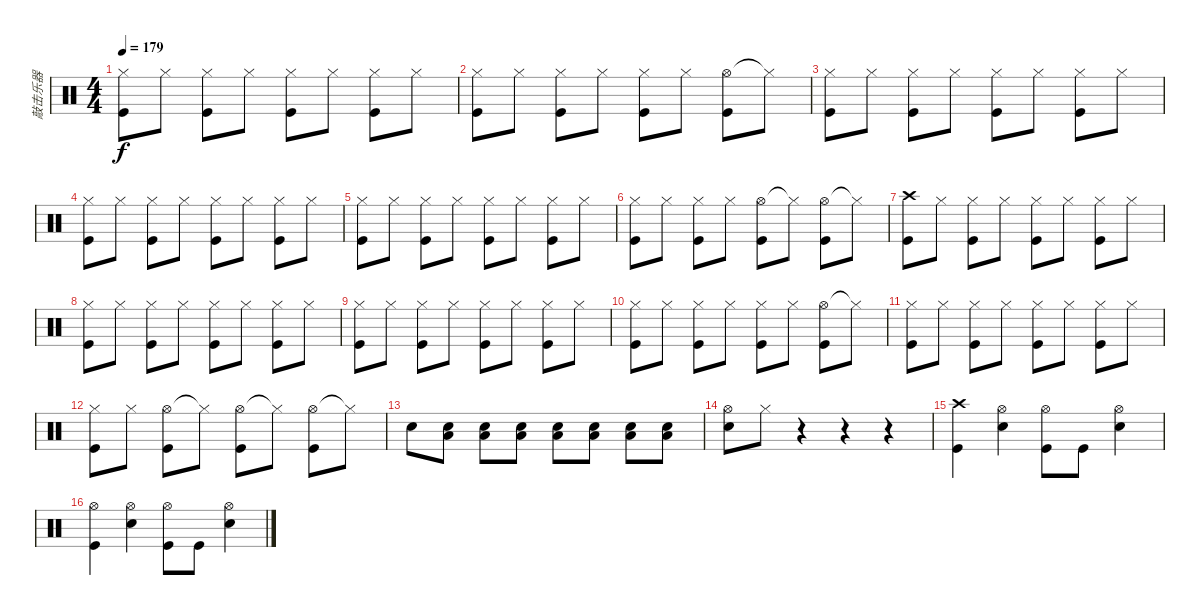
\track ("敲击乐器" "敲击乐器") {instrument percussion}
\staff {score}
\articulation defaults
\ts (4 4)
\tempo 179
\clef neutral
\ks c
("Hi-Hat (closed)" "Kick (hit)").8{dy f} "Hi-Hat (closed)".8 ("Hi-Hat (closed)" "Kick (hit)").8 "Hi-Hat (closed)".8 ("Hi-Hat (closed)" "Kick (hit)").8 "Hi-Hat (closed)".8 ("Hi-Hat (closed)" "Kick (hit)").8 "Hi-Hat (closed)".8 |
("Hi-Hat (closed)" "Kick (hit)").8 "Hi-Hat (closed)".8 ("Hi-Hat (closed)" "Kick (hit)").8 "Hi-Hat (closed)".8 ("Hi-Hat (closed)" "Kick (hit)").8 "Hi-Hat (closed)".8 ("Hi-Hat (open)" "Kick (hit)").8 "Hi-Hat (closed)"{t}.8 |
("Hi-Hat (closed)" "Kick (hit)").8 "Hi-Hat (closed)".8 ("Hi-Hat (closed)" "Kick (hit)").8 "Hi-Hat (closed)".8 ("Hi-Hat (closed)" "Kick (hit)").8 "Hi-Hat (closed)".8 ("Hi-Hat (closed)" "Kick (hit)").8 "Hi-Hat (closed)".8 |
("Hi-Hat (closed)" "Kick (hit)").8 "Hi-Hat (closed)".8 ("Hi-Hat (closed)" "Kick (hit)").8 "Hi-Hat (closed)".8 ("Hi-Hat (closed)" "Kick (hit)").8 "Hi-Hat (closed)".8 ("Hi-Hat (closed)" "Kick (hit)").8 "Hi-Hat (closed)".8 |
("Hi-Hat (closed)" "Kick (hit)").8 "Hi-Hat (closed)".8 ("Hi-Hat (closed)" "Kick (hit)").8 "Hi-Hat (closed)".8 ("Hi-Hat (closed)" "Kick (hit)").8 "Hi-Hat (closed)".8 ("Hi-Hat (closed)" "Kick (hit)").8 "Hi-Hat (closed)".8 |
("Hi-Hat (closed)" "Kick (hit)").8 "Hi-Hat (closed)".8 ("Hi-Hat (closed)" "Kick (hit)").8 "Hi-Hat (closed)".8 ("Hi-Hat (open)" "Kick (hit)").8 "Hi-Hat (closed)"{t}.8 ("Hi-Hat (open)" "Kick (hit)").8 "Hi-Hat (closed)"{t}.8 |
("Crash high (hit)" "Kick (hit)").8 "Hi-Hat (closed)".8 ("Hi-Hat (closed)" "Kick (hit)").8 "Hi-Hat (closed)".8 ("Hi-Hat (closed)" "Kick (hit)").8 "Hi-Hat (closed)".8 ("Hi-Hat (closed)" "Kick (hit)").8 "Hi-Hat (closed)".8 |
("Hi-Hat (closed)" "Kick (hit)").8 "Hi-Hat (closed)".8 ("Hi-Hat (closed)" "Kick (hit)").8 "Hi-Hat (closed)".8 ("Hi-Hat (closed)" "Kick (hit)").8 "Hi-Hat (closed)".8 ("Hi-Hat (closed)" "Kick (hit)").8 "Hi-Hat (closed)".8 |
("Hi-Hat (closed)" "Kick (hit)").8 "Hi-Hat (closed)".8 ("Hi-Hat (closed)" "Kick (hit)").8 "Hi-Hat (closed)".8 ("Hi-Hat (closed)" "Kick (hit)").8 "Hi-Hat (closed)".8 ("Hi-Hat (closed)" "Kick (hit)").8 "Hi-Hat (closed)".8 |
("Hi-Hat (closed)" "Kick (hit)").8 "Hi-Hat (closed)".8 ("Hi-Hat (closed)" "Kick (hit)").8 "Hi-Hat (closed)".8 ("Hi-Hat (closed)" "Kick (hit)").8 "Hi-Hat (closed)".8 ("Hi-Hat (open)" "Kick (hit)").8 "Hi-Hat (closed)"{t}.8 |
("Hi-Hat (closed)" "Kick (hit)").8 "Hi-Hat (closed)".8 ("Hi-Hat (closed)" "Kick (hit)").8 "Hi-Hat (closed)".8 ("Hi-Hat (closed)" "Kick (hit)").8 "Hi-Hat (closed)".8 ("Hi-Hat (closed)" "Kick (hit)").8 "Hi-Hat (closed)".8 |
("Hi-Hat (closed)" "Kick (hit)").8 "Hi-Hat (closed)".8 ("Hi-Hat (open)" "Kick (hit)").8 "Hi-Hat (closed)"{t}.8 ("Hi-Hat (open)" "Kick (hit)").8 "Hi-Hat (closed)"{t}.8 ("Hi-Hat (open)" "Kick (hit)").8 "Hi-Hat (closed)"{t}.8 |
"Electric Snare (hit)".8 ("Electric Snare (hit)" "Low Floor Tom (hit)").8 ("Electric Snare (hit)" "Low Floor Tom (hit)").8 ("Electric Snare (hit)" "Low Floor Tom (hit)").8 ("Electric Snare (hit)" "Low Floor Tom (hit)").8 ("Electric Snare (hit)" "Low Floor Tom (hit)").8 ("Electric Snare (hit)" "Low Floor Tom (hit)").8 ("Electric Snare (hit)" "Low Floor Tom (hit)").8 |
("Hi-Hat (open)" "Electric Snare (hit)").8 "Hi-Hat (closed)".8 r.4 r.4 r.4 |
("Crash high (hit)" "Kick (hit)").4 ("Hi-Hat (open)" "Electric Snare (hit)").4 ("Hi-Hat (open)" "Kick (hit)").8 "Kick (hit)".8 ("Hi-Hat (open)" "Electric Snare (hit)").4 |
("Hi-Hat (open)" "Kick (hit)").4 ("Hi-Hat (open)" "Electric Snare (hit)").4 ("Hi-Hat (open)" "Kick (hit)").8 "Kick (hit)".8 ("Hi-Hat (open)" "Electric Snare (hit)").4
